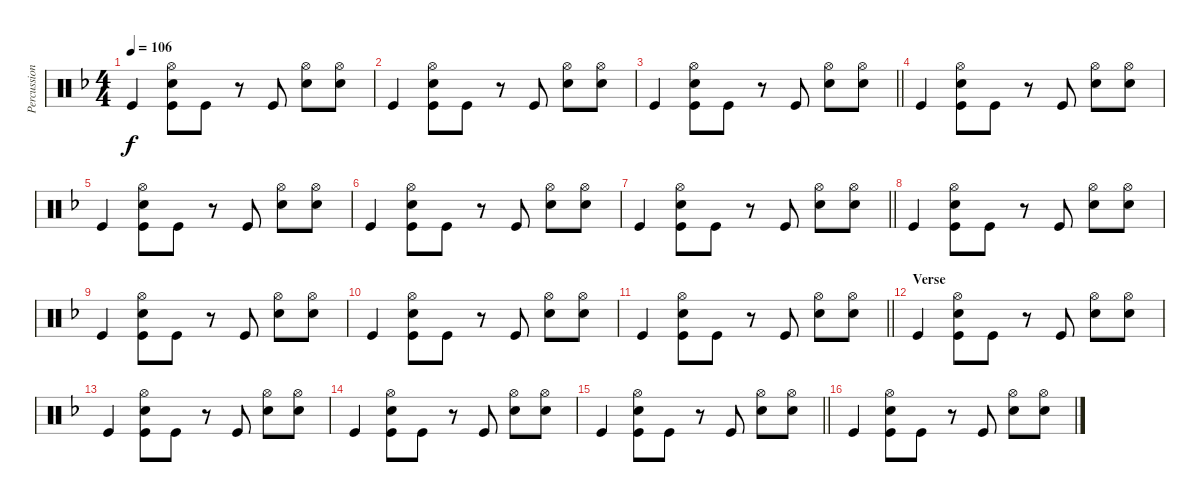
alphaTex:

\track ("Percussion" "Percussion") {instrument percussion}
\staff {score}
\articulation defaults
\ts (4 4)
\tempo 106
\clef neutral
\ks dminor "Kick (hit)".4{dy f}
("Hand Clap (hit)" "Hi-Hat (open)" "Kick (hit)").8 "Kick (hit)".8 r.8 "Kick (hit)".8 ("Hand Clap (hit)" "Hi-Hat (open)").8 ("Hand Clap (hit)" "Hi-Hat (open)").8 |
"Kick (hit)".4 ("Hand Clap (hit)" "Hi-Hat (open)" "Kick (hit)").8 "Kick (hit)".8 r.8 "Kick (hit)".8 ("Hand Clap (hit)" "Hi-Hat (open)").8 ("Hand Clap (hit)" "Hi-Hat (open)").8 |
\barLineRight lightlight "Kick (hit)".4
("Hand Clap (hit)" "Hi-Hat (open)" "Kick (hit)").8 "Kick (hit)".8 r.8 "Kick (hit)".8 ("Hand Clap (hit)" "Hi-Hat (open)").8 ("Hand Clap (hit)" "Hi-Hat (open)").8 |
"Kick (hit)".4 ("Hand Clap (hit)" "Hi-Hat (open)" "Kick (hit)").8 "Kick (hit)".8 r.8 "Kick (hit)".8 ("Hand Clap (hit)" "Hi-Hat (open)").8 ("Hand Clap (hit)" "Hi-Hat (open)").8 |
"Kick (hit)".4 ("Hand Clap (hit)" "Hi-Hat (open)" "Kick (hit)").8 "Kick (hit)".8 r.8 "Kick (hit)".8 ("Hand Clap (hit)" "Hi-Hat (open)").8 ("Hand Clap (hit)" "Hi-Hat (open)").8 |
"Kick (hit)".4 ("Hand Clap (hit)" "Hi-Hat (open)" "Kick (hit)").8 "Kick (hit)".8 r.8 "Kick (hit)".8 ("Hand Clap (hit)" "Hi-Hat (open)").8 ("Hand Clap (hit)" "Hi-Hat (open)").8 |
\barLineRight lightlight "Kick (hit)".4
("Hand Clap (hit)" "Hi-Hat (open)" "Kick (hit)").8 "Kick (hit)".8 r.8 "Kick (hit)".8 ("Hand Clap (hit)" "Hi-Hat (open)").8 ("Hand Clap (hit)" "Hi-Hat (open)").8 |
"Kick (hit)".4 ("Hand Clap (hit)" "Hi-Hat (open)" "Kick (hit)").8 "Kick (hit)".8 r.8 "Kick (hit)".8 ("Hand Clap (hit)" "Hi-Hat (open)").8 ("Hand Clap (hit)" "Hi-Hat (open)").8 |
"Kick (hit)".4 ("Hand Clap (hit)" "Hi-Hat (open)" "Kick (hit)").8 "Kick (hit)".8 r.8 "Kick (hit)".8 ("Hand Clap (hit)" "Hi-Hat (open)").8 ("Hand Clap (hit)" "Hi-Hat (open)").8 |
"Kick (hit)".4 ("Hand Clap (hit)" "Hi-Hat (open)" "Kick (hit)").8 "Kick (hit)".8 r.8 "Kick (hit)".8 ("Hand Clap (hit)" "Hi-Hat (open)").8 ("Hand Clap (hit)" "Hi-Hat (open)").8 |
\barLineRight lightlight "Kick (hit)".4
("Hand Clap (hit)" "Hi-Hat (open)" "Kick (hit)").8 "Kick (hit)".8 r.8 "Kick (hit)".8 ("Hand Clap (hit)" "Hi-Hat (open)").8 ("Hand Clap (hit)" "Hi-Hat (open)").8 |
\section ("" "Verse")
"Kick (hit)".4 ("Hand Clap (hit)" "Hi-Hat (open)" "Kick (hit)").8 "Kick (hit)".8 r.8 "Kick (hit)".8 ("Hand Clap (hit)" "Hi-Hat (open)").8 ("Hand Clap (hit)" "Hi-Hat (open)").8 |
"Kick (hit)".4 ("Hand Clap (hit)" "Hi-Hat (open)" "Kick (hit)").8 "Kick (hit)".8 r.8 "Kick (hit)".8 ("Hand Clap (hit)" "Hi-Hat (open)").8 ("Hand Clap (hit)" "Hi-Hat (open)").8 |
"Kick (hit)".4 ("Hand Clap (hit)" "Hi-Hat (open)" "Kick (hit)").8 "Kick (hit)".8 r.8 "Kick (hit)".8 ("Hand Clap (hit)" "Hi-Hat (open)").8 ("Hand Clap (hit)" "Hi-Hat (open)").8 |
\barLineRight lightlight "Kick (hit)".4
("Hand Clap (hit)" "Hi-Hat (open)" "Kick (hit)").8 "Kick (hit)".8 r.8 "Kick (hit)".8 ("Hand Clap (hit)" "Hi-Hat (open)").8 ("Hand Clap (hit)" "Hi-Hat (open)").8 |
"Kick (hit)".4 ("Hand Clap (hit)" "Hi-Hat (open)" "Kick (hit)").8 "Kick (hit)".8 r.8 "Kick (hit)".8 ("Hand Clap (hit)" "Hi-Hat (open)").8 ("Hand Clap (hit)" "Hi-Hat (open)").8
